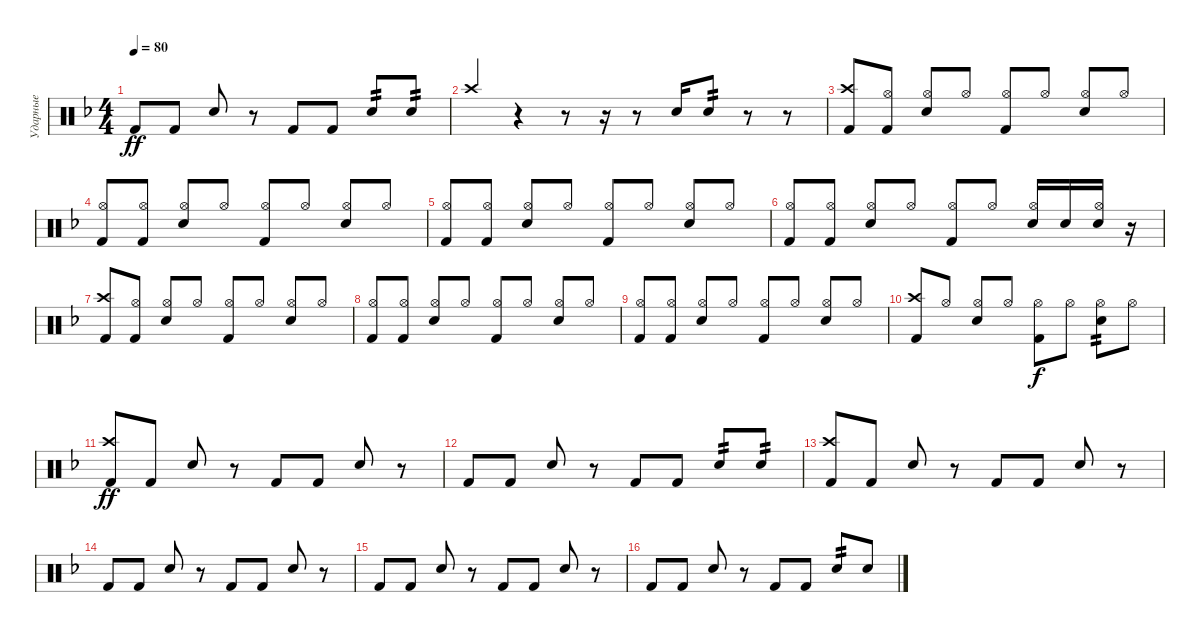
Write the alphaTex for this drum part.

\track ("Ударные" "Ударные") {instrument percussion}
\staff {score}
\articulation defaults
\ts (4 4)
\tempo 80
\clef neutral
\ks f "Kick (hit) 2".8{dy ff} "Kick (hit) 2".8 "Snare (hit) 2".8{beam Up}
r.8 "Kick (hit) 2".8 "Kick (hit) 2".8 "Snare (hit) 2".8{tp 2 beam Up} "Snare (hit) 2".8{tp 2 beam Up} |
"Crash high (hit)".4{beam Up} r.4 r.8 r.16 r.8 "Snare (hit) 2".16{beam Up} "Snare (hit) 2".8{tp 2 beam Up} r.8 r.8 |
("Crash high (hit)" "Kick (hit) 2").8{beam Up} ("Hi-Hat (open)" "Kick (hit) 2").8{beam Up} ("Hi-Hat (open)" "Snare (hit) 2").8{beam Up} "Hi-Hat (open)".8{beam Up} ("Hi-Hat (open)" "Kick (hit) 2").8{beam Up} "Hi-Hat (open)".8{beam Up} ("Hi-Hat (open)" "Snare (hit) 2").8{beam Up} "Hi-Hat (open)".8{beam Up} |
("Hi-Hat (open)" "Kick (hit) 2").8{beam Up} ("Hi-Hat (open)" "Kick (hit) 2").8{beam Up} ("Hi-Hat (open)" "Snare (hit) 2").8{beam Up} "Hi-Hat (open)".8{beam Up} ("Hi-Hat (open)" "Kick (hit) 2").8{beam Up} "Hi-Hat (open)".8{beam Up} ("Hi-Hat (open)" "Snare (hit) 2").8{beam Up} "Hi-Hat (open)".8{beam Up} |
("Hi-Hat (open)" "Kick (hit) 2").8{beam Up} ("Hi-Hat (open)" "Kick (hit) 2").8{beam Up} ("Hi-Hat (open)" "Snare (hit) 2").8{beam Up} "Hi-Hat (open)".8{beam Up} ("Hi-Hat (open)" "Kick (hit) 2").8{beam Up} "Hi-Hat (open)".8{beam Up} ("Hi-Hat (open)" "Snare (hit) 2").8{beam Up} "Hi-Hat (open)".8{beam Up} |
("Hi-Hat (open)" "Kick (hit) 2").8{beam Up} ("Hi-Hat (open)" "Kick (hit) 2").8{beam Up} ("Hi-Hat (open)" "Snare (hit) 2").8{beam Up} "Hi-Hat (open)".8{beam Up} ("Hi-Hat (open)" "Kick (hit) 2").8{beam Up} "Hi-Hat (open)".8{beam Up} ("Hi-Hat (open)" "Snare (hit) 2").16{beam Up} "Snare (hit) 2".16{beam Up} ("Hi-Hat (open)" "Snare (hit) 2").16{beam Up} r.16 |
("Crash high (hit)" "Kick (hit) 2").8{beam Up} ("Hi-Hat (open)" "Kick (hit) 2").8{beam Up} ("Hi-Hat (open)" "Snare (hit) 2").8{beam Up} "Hi-Hat (open)".8{beam Up} ("Hi-Hat (open)" "Kick (hit) 2").8{beam Up} "Hi-Hat (open)".8{beam Up} ("Hi-Hat (open)" "Snare (hit) 2").8{beam Up} "Hi-Hat (open)".8{beam Up} |
("Hi-Hat (open)" "Kick (hit) 2").8{beam Up} ("Hi-Hat (open)" "Kick (hit) 2").8{beam Up} ("Hi-Hat (open)" "Snare (hit) 2").8{beam Up} "Hi-Hat (open)".8{beam Up} ("Hi-Hat (open)" "Kick (hit) 2").8{beam Up} "Hi-Hat (open)".8{beam Up} ("Hi-Hat (open)" "Snare (hit) 2").8{beam Up} "Hi-Hat (open)".8{beam Up} |
("Hi-Hat (open)" "Kick (hit) 2").8{beam Up} ("Hi-Hat (open)" "Kick (hit) 2").8{beam Up} ("Hi-Hat (open)" "Snare (hit) 2").8{beam Up} "Hi-Hat (open)".8{beam Up} ("Hi-Hat (open)" "Kick (hit) 2").8{beam Up} "Hi-Hat (open)".8{beam Up} ("Hi-Hat (open)" "Snare (hit) 2").8{beam Up} "Hi-Hat (open)".8{beam Up} |
("Crash high (hit)" "Kick (hit) 2").8{beam Up} "Hi-Hat (open)".8{beam Up} ("Hi-Hat (open)" "Snare (hit) 2").8{beam Up} "Hi-Hat (open)".8{beam Up} ("Hi-Hat (open)" "Kick (hit) 2").8{dy f} "Hi-Hat (open)".8 ("Hi-Hat (open)" "Snare (hit) 2").8{tp 2} "Hi-Hat (open)".8 |
("Crash high (hit)" "Kick (hit) 2").8{dy ff beam Up} "Kick (hit) 2".8{beam Up} "Snare (hit) 2".8{beam Up} r.8 "Kick (hit) 2".8 "Kick (hit) 2".8 "Snare (hit) 2".8{beam Up} r.8 |
"Kick (hit) 2".8 "Kick (hit) 2".8 "Snare (hit) 2".8{beam Up} r.8 "Kick (hit) 2".8 "Kick (hit) 2".8 "Snare (hit) 2".8{tp 2 beam Up} "Snare (hit) 2".8{tp 2 beam Up} |
("Crash high (hit)" "Kick (hit) 2").8{beam Up} "Kick (hit) 2".8{beam Up} "Snare (hit) 2".8{beam Up} r.8 "Kick (hit) 2".8 "Kick (hit) 2".8 "Snare (hit) 2".8{beam Up} r.8 |
"Kick (hit) 2".8 "Kick (hit) 2".8 "Snare (hit) 2".8{beam Up} r.8 "Kick (hit) 2".8 "Kick (hit) 2".8 "Snare (hit) 2".8{beam Up} r.8 |
"Kick (hit) 2".8 "Kick (hit) 2".8 "Snare (hit) 2".8{beam Up} r.8 "Kick (hit) 2".8 "Kick (hit) 2".8 "Snare (hit) 2".8{beam Up} r.8 |
"Kick (hit) 2".8 "Kick (hit) 2".8 "Snare (hit) 2".8{beam Up} r.8 "Kick (hit) 2".8 "Kick (hit) 2".8 "Snare (hit) 2".8{tp 2 beam Up} "Snare (hit) 2".8
